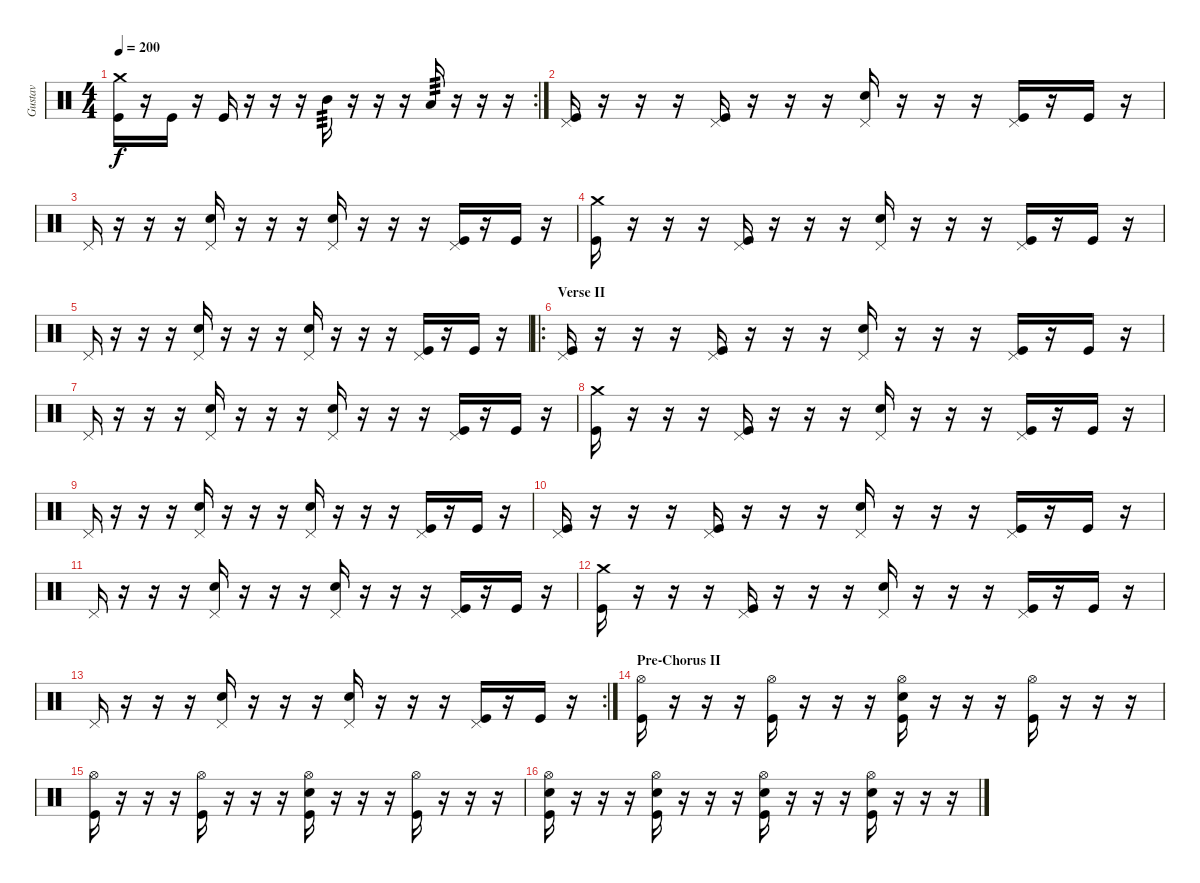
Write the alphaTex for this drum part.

\track ("Gustav" "Gustav") {instrument percussion}
\staff {score}
\articulation defaults
\rc 2
\ts (4 4)
\tempo 200
\clef neutral
\ks c
("Crash medium (hit)" "Kick (hit)").16{dy f} r.16 "Kick (hit)".16 r.16 "Kick (hit)".16 r.16 r.16 r.16 "Mid Tom (hit)".16{tp 3} r.16 r.16 r.16 "Low Tom (hit)".16{tp 3} r.16 r.16 r.16 |
("Pedal Hi-Hat (hit)" "Kick (hit)").16 r.16 r.16 r.16 ("Pedal Hi-Hat (hit)" "Kick (hit)").16 r.16 r.16 r.16 ("Pedal Hi-Hat (hit)" "Electric Snare (hit)").16 r.16 r.16 r.16 ("Pedal Hi-Hat (hit)" "Kick (hit)").16 r.16 "Kick (hit)".16 r.16 |
"Pedal Hi-Hat (hit)".16 r.16 r.16 r.16 ("Pedal Hi-Hat (hit)" "Electric Snare (hit)").16 r.16 r.16 r.16 ("Pedal Hi-Hat (hit)" "Electric Snare (hit)").16 r.16 r.16 r.16 ("Pedal Hi-Hat (hit)" "Kick (hit)").16 r.16 "Kick (hit)".16 r.16 |
("Crash medium (hit)" "Kick (hit)").16 r.16 r.16 r.16 ("Pedal Hi-Hat (hit)" "Kick (hit)").16 r.16 r.16 r.16 ("Pedal Hi-Hat (hit)" "Electric Snare (hit)").16 r.16 r.16 r.16 ("Pedal Hi-Hat (hit)" "Kick (hit)").16 r.16 "Kick (hit)".16 r.16 |
"Pedal Hi-Hat (hit)".16 r.16 r.16 r.16 ("Pedal Hi-Hat (hit)" "Electric Snare (hit)").16 r.16 r.16 r.16 ("Pedal Hi-Hat (hit)" "Electric Snare (hit)").16 r.16 r.16 r.16 ("Pedal Hi-Hat (hit)" "Kick (hit)").16 r.16 "Kick (hit)".16 r.16 |
\ro
\section ("" "Verse II")
("Pedal Hi-Hat (hit)" "Kick (hit)").16 r.16 r.16 r.16 ("Pedal Hi-Hat (hit)" "Kick (hit)").16 r.16 r.16 r.16 ("Pedal Hi-Hat (hit)" "Electric Snare (hit)").16 r.16 r.16 r.16 ("Pedal Hi-Hat (hit)" "Kick (hit)").16 r.16 "Kick (hit)".16 r.16 |
"Pedal Hi-Hat (hit)".16 r.16 r.16 r.16 ("Pedal Hi-Hat (hit)" "Electric Snare (hit)").16 r.16 r.16 r.16 ("Pedal Hi-Hat (hit)" "Electric Snare (hit)").16 r.16 r.16 r.16 ("Pedal Hi-Hat (hit)" "Kick (hit)").16 r.16 "Kick (hit)".16 r.16 |
("Crash medium (hit)" "Kick (hit)").16 r.16 r.16 r.16 ("Pedal Hi-Hat (hit)" "Kick (hit)").16 r.16 r.16 r.16 ("Pedal Hi-Hat (hit)" "Electric Snare (hit)").16 r.16 r.16 r.16 ("Pedal Hi-Hat (hit)" "Kick (hit)").16 r.16 "Kick (hit)".16 r.16 |
"Pedal Hi-Hat (hit)".16 r.16 r.16 r.16 ("Pedal Hi-Hat (hit)" "Electric Snare (hit)").16 r.16 r.16 r.16 ("Pedal Hi-Hat (hit)" "Electric Snare (hit)").16 r.16 r.16 r.16 ("Pedal Hi-Hat (hit)" "Kick (hit)").16 r.16 "Kick (hit)".16 r.16 |
("Pedal Hi-Hat (hit)" "Kick (hit)").16 r.16 r.16 r.16 ("Pedal Hi-Hat (hit)" "Kick (hit)").16 r.16 r.16 r.16 ("Pedal Hi-Hat (hit)" "Electric Snare (hit)").16 r.16 r.16 r.16 ("Pedal Hi-Hat (hit)" "Kick (hit)").16 r.16 "Kick (hit)".16 r.16 |
"Pedal Hi-Hat (hit)".16 r.16 r.16 r.16 ("Pedal Hi-Hat (hit)" "Electric Snare (hit)").16 r.16 r.16 r.16 ("Pedal Hi-Hat (hit)" "Electric Snare (hit)").16 r.16 r.16 r.16 ("Pedal Hi-Hat (hit)" "Kick (hit)").16 r.16 "Kick (hit)".16 r.16 |
("Crash medium (hit)" "Kick (hit)").16 r.16 r.16 r.16 ("Pedal Hi-Hat (hit)" "Kick (hit)").16 r.16 r.16 r.16 ("Pedal Hi-Hat (hit)" "Electric Snare (hit)").16 r.16 r.16 r.16 ("Pedal Hi-Hat (hit)" "Kick (hit)").16 r.16 "Kick (hit)".16 r.16 |
\rc 2 "Pedal Hi-Hat (hit)".16
r.16 r.16 r.16 ("Pedal Hi-Hat (hit)" "Electric Snare (hit)").16 r.16 r.16 r.16 ("Pedal Hi-Hat (hit)" "Electric Snare (hit)").16 r.16 r.16 r.16 ("Pedal Hi-Hat (hit)" "Kick (hit)").16 r.16 "Kick (hit)".16 r.16 |
\section ("" "Pre-Chorus II")
("Hi-Hat (open)" "Kick (hit)").16 r.16 r.16 r.16 ("Hi-Hat (open)" "Kick (hit)").16 r.16 r.16 r.16 ("Hi-Hat (open)" "Electric Snare (hit)" "Kick (hit)").16 r.16 r.16 r.16 ("Hi-Hat (open)" "Kick (hit)").16 r.16 r.16 r.16 |
("Hi-Hat (open)" "Kick (hit)").16 r.16 r.16 r.16 ("Hi-Hat (open)" "Kick (hit)").16 r.16 r.16 r.16 ("Hi-Hat (open)" "Electric Snare (hit)" "Kick (hit)").16 r.16 r.16 r.16 ("Hi-Hat (open)" "Kick (hit)").16 r.16 r.16 r.16 |
("Hi-Hat (open)" "Electric Snare (hit)" "Kick (hit)").16 r.16 r.16 r.16 ("Hi-Hat (open)" "Electric Snare (hit)" "Kick (hit)").16 r.16 r.16 r.16 ("Hi-Hat (open)" "Electric Snare (hit)" "Kick (hit)").16 r.16 r.16 r.16 ("Hi-Hat (open)" "Electric Snare (hit)" "Kick (hit)").16 r.16 r.16 r.16
